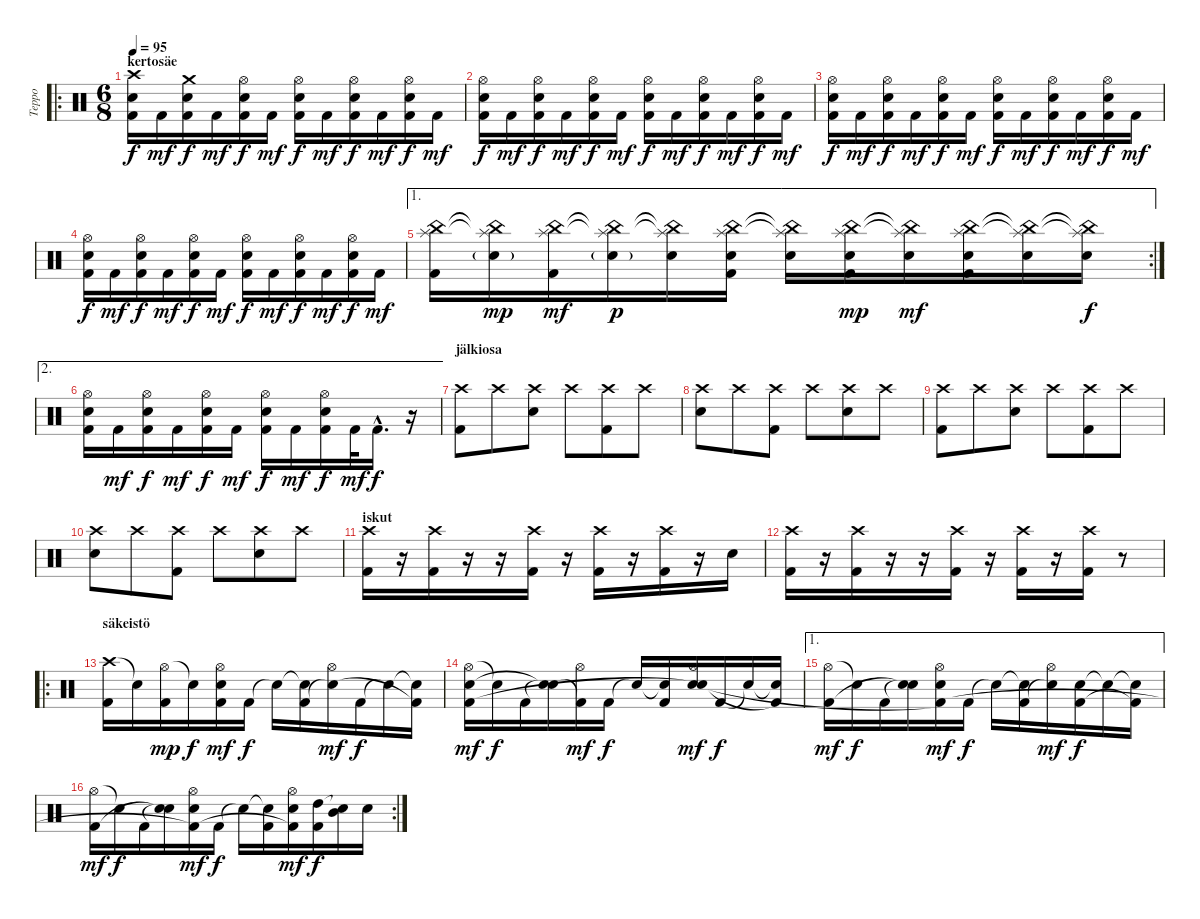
\track ("Teppo" "Teppo") {instrument percussion}
\staff {score}
\articulation defaults
\ro
\ts (6 8)
\section ("" "kertosäe")
\tempo 95
\clef neutral
\ks c
("Crash high (hit)" "Electric Snare (hit)" "Kick (hit) 2").16{dy f} "Kick (hit) 2".16{dy mf} ("Crash medium (hit)" "Electric Snare (hit)" "Kick (hit) 2").16{dy f} "Kick (hit) 2".16{dy mf} ("Hi-Hat (open)" "Electric Snare (hit)" "Kick (hit) 2").16{dy f} "Kick (hit) 2".16{dy mf} ("Hi-Hat (open)" "Electric Snare (hit)" "Kick (hit) 2").16{dy f} "Kick (hit) 2".16{dy mf} ("Hi-Hat (open)" "Electric Snare (hit)" "Kick (hit) 2").16{dy f} "Kick (hit) 2".16{dy mf} ("Hi-Hat (open)" "Electric Snare (hit)" "Kick (hit) 2").16{dy f} "Kick (hit) 2".16{dy mf} |
("Hi-Hat (open)" "Electric Snare (hit)" "Kick (hit) 2").16{dy f} "Kick (hit) 2".16{dy mf} ("Hi-Hat (open)" "Electric Snare (hit)" "Kick (hit) 2").16{dy f} "Kick (hit) 2".16{dy mf} ("Hi-Hat (open)" "Electric Snare (hit)" "Kick (hit) 2").16{dy f} "Kick (hit) 2".16{dy mf} ("Hi-Hat (open)" "Electric Snare (hit)" "Kick (hit) 2").16{dy f} "Kick (hit) 2".16{dy mf} ("Hi-Hat (open)" "Electric Snare (hit)" "Kick (hit) 2").16{dy f} "Kick (hit) 2".16{dy mf} ("Hi-Hat (open)" "Electric Snare (hit)" "Kick (hit) 2").16{dy f} "Kick (hit) 2".16{dy mf} |
("Hi-Hat (open)" "Electric Snare (hit)" "Kick (hit) 2").16{dy f} "Kick (hit) 2".16{dy mf} ("Hi-Hat (open)" "Electric Snare (hit)" "Kick (hit) 2").16{dy f} "Kick (hit) 2".16{dy mf} ("Hi-Hat (open)" "Electric Snare (hit)" "Kick (hit) 2").16{dy f} "Kick (hit) 2".16{dy mf} ("Hi-Hat (open)" "Electric Snare (hit)" "Kick (hit) 2").16{dy f} "Kick (hit) 2".16{dy mf} ("Hi-Hat (open)" "Electric Snare (hit)" "Kick (hit) 2").16{dy f} "Kick (hit) 2".16{dy mf} ("Hi-Hat (open)" "Electric Snare (hit)" "Kick (hit) 2").16{dy f} "Kick (hit) 2".16{dy mf} |
("Hi-Hat (open)" "Electric Snare (hit)" "Kick (hit) 2").16{dy f} "Kick (hit) 2".16{dy mf} ("Hi-Hat (open)" "Electric Snare (hit)" "Kick (hit) 2").16{dy f} "Kick (hit) 2".16{dy mf} ("Hi-Hat (open)" "Electric Snare (hit)" "Kick (hit) 2").16{dy f} "Kick (hit) 2".16{dy mf} ("Hi-Hat (open)" "Electric Snare (hit)" "Kick (hit) 2").16{dy f} "Kick (hit) 2".16{dy mf} ("Hi-Hat (open)" "Electric Snare (hit)" "Kick (hit) 2").16{dy f} "Kick (hit) 2".16{dy mf} ("Hi-Hat (open)" "Electric Snare (hit)" "Kick (hit) 2").16{dy f} "Kick (hit) 2".16{dy mf} |
\ae 1
\rc 2
("China (hit)" "Splash (hit)" "Kick (hit) 2").16 ("China (hit)"{t} "Splash (hit)"{t} "Electric Snare (hit)"{g}).16{dy mp} ("China (hit)" "Splash (hit)" "Kick (hit) 2").16{dy mf} ("China (hit)"{t} "Splash (hit)"{t} "Electric Snare (hit)"{g}).16{dy p} ("China (hit)"{t} "Splash (hit)"{t} "Electric Snare (hit)").16 ("China (hit)" "Splash (hit)" "Electric Snare (hit)" "Kick (hit) 2").16 ("China (hit)"{t} "Splash (hit)"{t} "Electric Snare (hit)").16 ("China (hit)" "Splash (hit)" "Electric Snare (hit)" "Kick (hit) 2").16{dy mp} ("China (hit)"{t} "Splash (hit)"{t} "Electric Snare (hit)").16{dy mf} ("China (hit)" "Splash (hit)" "Electric Snare (hit)" "Kick (hit) 2").16 ("China (hit)"{t} "Splash (hit)"{t} "Electric Snare (hit)").16 ("China (hit)"{t} "Splash (hit)"{t} "Electric Snare (hit)").16{dy f} |
\ae 2
("Hi-Hat (open)" "Electric Snare (hit)" "Kick (hit) 2").16 "Kick (hit) 2".16{dy mf} ("Hi-Hat (open)" "Electric Snare (hit)" "Kick (hit) 2").16{dy f} "Kick (hit) 2".16{dy mf} ("Hi-Hat (open)" "Electric Snare (hit)" "Kick (hit) 2").16{dy f} "Kick (hit) 2".16{dy mf} ("Hi-Hat (open)" "Electric Snare (hit)" "Kick (hit) 2").16{dy f} "Kick (hit) 2".16{dy mf} ("Hi-Hat (open)" "Electric Snare (hit)" "Kick (hit) 2").16{dy f} "Kick (hit) 2".32{dy mf} "Kick (hit) 2"{hac}.16{d dy f} r.16 |
\section ("" "jälkiosa")
("Crash high (hit)" "Kick (hit) 2").8 "Crash high (hit)".8 ("Crash high (hit)" "Electric Snare (hit)").8 "Crash high (hit)".8 ("Crash high (hit)" "Kick (hit) 2").8 "Crash high (hit)".8 |
("Crash high (hit)" "Electric Snare (hit)").8 "Crash high (hit)".8 ("Crash high (hit)" "Kick (hit) 2").8 "Crash high (hit)".8 ("Crash high (hit)" "Electric Snare (hit)").8 "Crash high (hit)".8 |
("Crash high (hit)" "Kick (hit) 2").8 "Crash high (hit)".8 ("Crash high (hit)" "Electric Snare (hit)").8 "Crash high (hit)".8 ("Crash high (hit)" "Kick (hit) 2").8 "Crash high (hit)".8 |
("Crash high (hit)" "Electric Snare (hit)").8 "Crash high (hit)".8 ("Crash high (hit)" "Kick (hit) 2").8 "Crash high (hit)".8 ("Crash high (hit)" "Electric Snare (hit)").8 "Crash high (hit)".8 |
\section ("" "iskut")
("Crash high (hit)"{pm} "Kick (hit) 2").16 r.16 ("Crash high (hit)"{pm} "Kick (hit) 2").16 r.16 r.16 ("Crash high (hit)"{pm} "Kick (hit) 2").16 r.16 ("Crash high (hit)"{pm} "Kick (hit) 2").16 r.16 ("Crash high (hit)"{pm} "Kick (hit) 2").16 r.16 "Electric Snare (hit)".16 |
("Crash high (hit)"{pm} "Kick (hit) 2").16 r.16 ("Crash high (hit)"{pm} "Kick (hit) 2").16 r.16 r.16 ("Crash high (hit)"{pm} "Kick (hit) 2").16 r.16 ("Crash high (hit)"{pm} "Kick (hit) 2").16 r.16 ("Crash high (hit)"{pm} "Kick (hit) 2").16 r.8 |
\ro
\section ("" "säkeistö")
("Crash high (hit)" "Kick (hit) 2").16 "Snare (hit)"{t}.16 ("Hi-Hat (open)" "Kick (hit) 2").16{dy mp} "Snare (hit)"{t}.16{dy f} ("Hi-Hat (open)" "Electric Snare (hit)" "Kick (hit) 2").16{dy mf} "Kick (hit) 2".16{dy f} "Snare (hit)"{t}.16 ("Snare (hit)"{t} "Kick (hit) 2").16 ("Hi-Hat (open)" "Snare (hit)"{t}).16{dy mf} "Kick (hit) 2".16{dy f} "Snare (hit)"{t}.16 ("Snare (hit)"{t} "Kick (hit) 2"{t}).16 |
("Hi-Hat (open)" "Electric Snare (hit)" "Kick (hit) 2").16{dy mf} "Snare (hit)"{t}.16{dy f} "Kick (hit) 2".16 ("Snare (hit)"{t} "Snare (hit)"{t}).16 ("Hi-Hat (open)" "Kick (hit) 2"{t}).16{dy mf} "Kick (hit) 2".16{dy f} "Snare (hit)"{t}.16 ("Snare (hit)"{t} "Kick (hit) 2").16 ("Hi-Hat (open)" "Electric Snare (hit)" "Snare (hit)"{t}).16{dy mf} "Kick (hit) 2".16{dy f} "Snare (hit)"{t}.16 ("Snare (hit)"{t} "Kick (hit) 2"{t}).16 |
\ae 1
("Hi-Hat (open)" "Kick (hit) 2").16{dy mf} "Snare (hit)"{t}.16{dy f} "Kick (hit) 2".16 ("Snare (hit)"{t} "Snare (hit)"{t}).16 ("Hi-Hat (open)" "Electric Snare (hit)" "Kick (hit) 2"{t}).16{dy mf} "Kick (hit) 2".16{dy f} "Snare (hit)"{t}.16 ("Snare (hit)"{t} "Kick (hit) 2").16 ("Hi-Hat (open)" "Snare (hit)"{t}).16{dy mf} ("Electric Snare (hit)" "Kick (hit) 2").16{dy f} "Snare (hit)"{t}.16 ("Snare (hit)"{t} "Kick (hit) 2"{t}).16 |
\rc 2
("Hi-Hat (open)" "Kick (hit) 2").16{dy mf} "Snare (hit)"{t}.16{dy f} "Kick (hit) 2".16 ("Snare (hit)"{t} "Snare (hit)"{t}).16 ("Hi-Hat (open)" "Electric Snare (hit)" "Kick (hit) 2"{t}).16{dy mf} "Kick (hit) 2".16{dy f} "Snare (hit)"{t}.16 ("Snare (hit)"{t} "Kick (hit) 2").16 ("Hi-Hat (open)" "Electric Snare (hit)" "Kick (hit) 2"{t}).16{dy mf} ("High Tom (hit)" "Kick (hit) 2").16{dy f} ("Snare (hit)"{t} "Mid Tom (hit)").16 "Electric Snare (hit)".16
